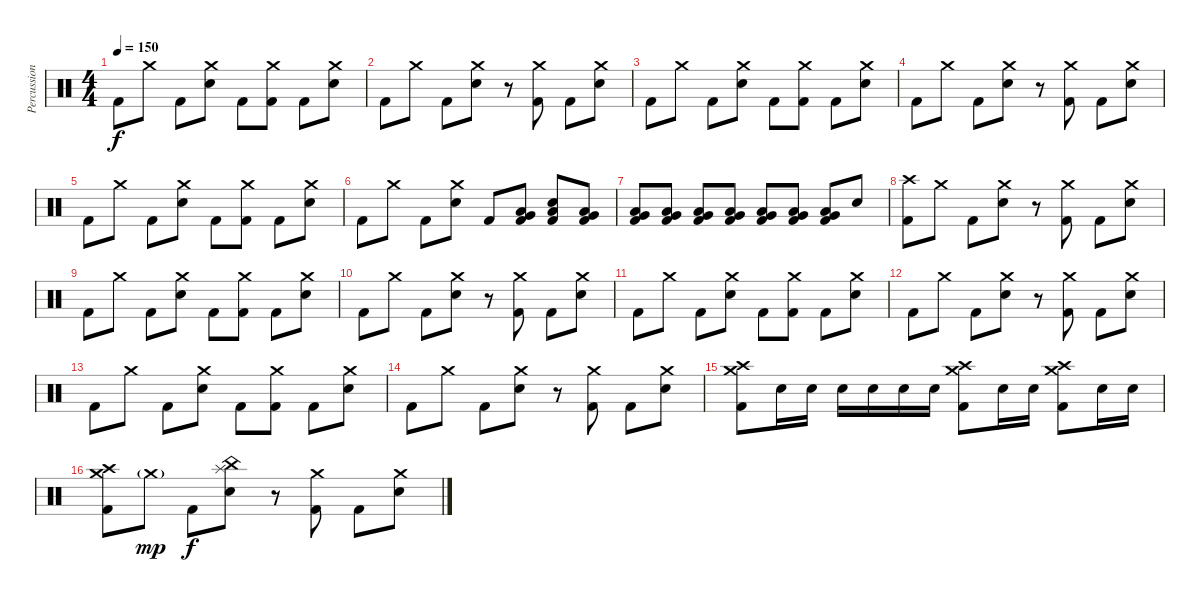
\track ("Percussion" "Percussion") {instrument percussion}
\staff {score}
\articulation defaults
\ts (4 4)
\tempo 150
\clef neutral
\ks c "Kick (hit) 2".8{dy f} "Crash medium (hit)".8 "Kick (hit) 2".8
("Crash medium (hit)" "Electric Snare (hit)").8 "Kick (hit) 2".8 ("Crash medium (hit)" "Kick (hit) 2").8 "Kick (hit) 2".8 ("Crash medium (hit)" "Electric Snare (hit)").8 |
"Kick (hit) 2".8 "Crash medium (hit)".8 "Kick (hit) 2".8 ("Crash medium (hit)" "Electric Snare (hit)").8 r.8 ("Crash medium (hit)" "Kick (hit) 2").8 "Kick (hit) 2".8 ("Crash medium (hit)" "Electric Snare (hit)").8 |
"Kick (hit) 2".8 "Crash medium (hit)".8 "Kick (hit) 2".8 ("Crash medium (hit)" "Electric Snare (hit)").8 "Kick (hit) 2".8 ("Crash medium (hit)" "Kick (hit) 2").8 "Kick (hit) 2".8 ("Crash medium (hit)" "Electric Snare (hit)").8 |
"Kick (hit) 2".8 "Crash medium (hit)".8 "Kick (hit) 2".8 ("Crash medium (hit)" "Electric Snare (hit)").8 r.8 ("Crash medium (hit)" "Kick (hit) 2").8 "Kick (hit) 2".8 ("Crash medium (hit)" "Electric Snare (hit)").8 |
"Kick (hit) 2".8 "Crash medium (hit)".8 "Kick (hit) 2".8 ("Crash medium (hit)" "Electric Snare (hit)").8 "Kick (hit) 2".8 ("Crash medium (hit)" "Kick (hit) 2").8 "Kick (hit) 2".8 ("Crash medium (hit)" "Electric Snare (hit)").8 |
"Kick (hit) 2".8 "Crash medium (hit)".8 "Kick (hit) 2".8 ("Crash medium (hit)" "Electric Snare (hit)").8 "Kick (hit) 2".8 ("Very Low Tom (hit)" "Low Floor Tom (hit)" "Kick (hit) 2").8 ("Electric Snare (hit)" "Low Floor Tom (hit)" "Kick (hit) 2").8 ("Very Low Tom (hit)" "Low Floor Tom (hit)" "Kick (hit) 2").8 |
("Very Low Tom (hit)" "Low Floor Tom (hit)" "Kick (hit) 2").8 ("Very Low Tom (hit)" "Low Floor Tom (hit)" "Kick (hit) 2").8 ("Very Low Tom (hit)" "Low Floor Tom (hit)" "Kick (hit) 2").8 ("Very Low Tom (hit)" "Low Floor Tom (hit)" "Kick (hit) 2").8 ("Very Low Tom (hit)" "Low Floor Tom (hit)" "Kick (hit) 2").8 ("Very Low Tom (hit)" "Low Floor Tom (hit)" "Kick (hit) 2").8 ("Very Low Tom (hit)" "Low Floor Tom (hit)" "Kick (hit) 2").8 "Electric Snare (hit)".8 |
("Crash high (hit)" "Kick (hit) 2").8 "Crash medium (hit)".8 "Kick (hit) 2".8 ("Crash medium (hit)" "Electric Snare (hit)").8 r.8 ("Crash medium (hit)" "Kick (hit) 2").8 "Kick (hit) 2".8 ("Crash medium (hit)" "Electric Snare (hit)").8 |
"Kick (hit) 2".8 "Crash medium (hit)".8 "Kick (hit) 2".8 ("Crash medium (hit)" "Electric Snare (hit)").8 "Kick (hit) 2".8 ("Crash medium (hit)" "Kick (hit) 2").8 "Kick (hit) 2".8 ("Crash medium (hit)" "Electric Snare (hit)").8 |
"Kick (hit) 2".8 "Crash medium (hit)".8 "Kick (hit) 2".8 ("Crash medium (hit)" "Electric Snare (hit)").8 r.8 ("Crash medium (hit)" "Kick (hit) 2").8 "Kick (hit) 2".8 ("Crash medium (hit)" "Electric Snare (hit)").8 |
"Kick (hit) 2".8 "Crash medium (hit)".8 "Kick (hit) 2".8 ("Crash medium (hit)" "Electric Snare (hit)").8 "Kick (hit) 2".8 ("Crash medium (hit)" "Kick (hit) 2").8 "Kick (hit) 2".8 ("Crash medium (hit)" "Electric Snare (hit)").8 |
"Kick (hit) 2".8 "Crash medium (hit)".8 "Kick (hit) 2".8 ("Crash medium (hit)" "Electric Snare (hit)").8 r.8 ("Crash medium (hit)" "Kick (hit) 2").8 "Kick (hit) 2".8 ("Crash medium (hit)" "Electric Snare (hit)").8 |
"Kick (hit) 2".8 "Crash medium (hit)".8 "Kick (hit) 2".8 ("Crash medium (hit)" "Electric Snare (hit)").8 "Kick (hit) 2".8 ("Crash medium (hit)" "Kick (hit) 2").8 "Kick (hit) 2".8 ("Crash medium (hit)" "Electric Snare (hit)").8 |
"Kick (hit) 2".8 "Crash medium (hit)".8 "Kick (hit) 2".8 ("Crash medium (hit)" "Electric Snare (hit)").8 r.8 ("Crash medium (hit)" "Kick (hit) 2").8 "Kick (hit) 2".8 ("Crash medium (hit)" "Electric Snare (hit)").8 |
("Crash medium (hit)" "Crash high (hit)" "Kick (hit) 2").8 "Electric Snare (hit)".16 "Electric Snare (hit)".16 "Electric Snare (hit)".16 "Electric Snare (hit)".16 "Electric Snare (hit)".16 "Electric Snare (hit)".16 ("Crash medium (hit)" "Crash high (hit)" "Kick (hit) 2").8 "Electric Snare (hit)".16 "Electric Snare (hit)".16 ("Crash medium (hit)" "Crash high (hit)" "Kick (hit) 2").8 "Electric Snare (hit)".16 "Electric Snare (hit)".16 |
("Crash medium (hit)" "Crash high (hit)" "Kick (hit) 2").8 "Crash medium (hit)"{g}.8{dy mp} "Kick (hit) 2".8{dy f} ("China (hit)" "Splash (hit)" "Electric Snare (hit)").8 r.8 ("Crash medium (hit)" "Kick (hit) 2").8 "Kick (hit) 2".8 ("Crash medium (hit)" "Electric Snare (hit)").8
